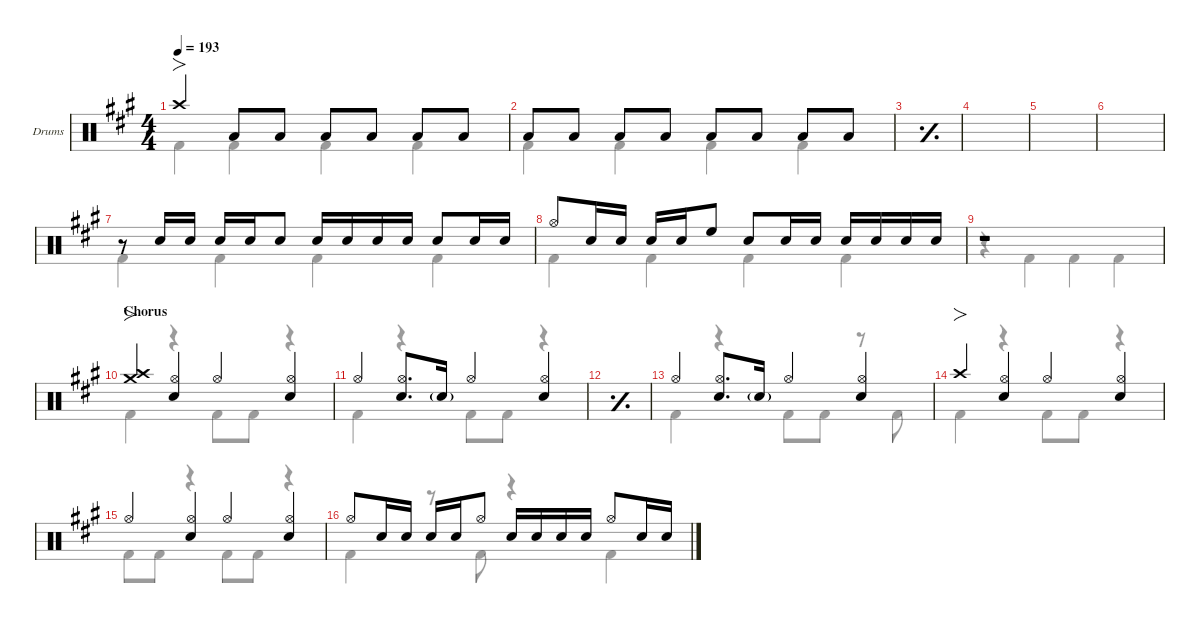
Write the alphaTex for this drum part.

\defaultSystemsLayout 4
\hideDynamics
\bracketExtendMode nobrackets
\firstSystemTrackNameOrientation horizontal
\track ("Drums" "Drums") {defaultSystemsLayout 4 instrument percussion}
\staff {score}
\articulation defaults
\voice
\ts (4 4)
\tempo 193
\clef neutral
\scale
0.266618
\ks a "Crash high (hit)"{acc forcenatural}.4{fo dy f beam Up} "Low Tom (hit)"{acc forcenatural}.8{beam Up} "Low Tom (hit)"{acc forcenatural}.8{beam Up} "Low Tom (hit)"{acc forcenatural}.8{beam Up} "Low Tom (hit)"{acc forcenatural}.8{beam Up} "Low Tom (hit)"{acc forcenatural}.8{beam Up} "Low Tom (hit)"{acc forcenatural}.8{beam Up}
|
\scale
0.244461 "Low Tom (hit)"{acc forcenatural}.8{beam Up} "Low Tom (hit)"{acc forcenatural}.8{beam Up} "Low Tom (hit)"{acc forcenatural}.8{beam Up} "Low Tom (hit)"{acc forcenatural}.8{beam Up} "Low Tom (hit)"{acc forcenatural}.8{beam Up} "Low Tom (hit)"{acc forcenatural}.8{beam Up} "Low Tom (hit)"{acc forcenatural}.8{beam Up} "Low Tom (hit)"{acc forcenatural}.8{beam Up} |
\simile simple
\scale
0.244461 |
\scale
0.244461 |
\scale
0.267605 |
\scale
0.244132 |
\simile none
\scale
0.244132 r.8{beam Up} "Snare (hit) 2"{acc forcenatural}.16{beam Up} "Snare (hit) 2"{acc forcenatural}.16{dy mf beam Up beam split} "Snare (hit) 2"{acc forcenatural}.16{dy f beam Up} "Snare (hit) 2"{acc forcenatural}.16{dy mf beam Up} "Snare (hit) 2"{acc forcenatural}.8{dy f beam Up} "Snare (hit) 2"{acc forcenatural}.16{beam Up} "Snare (hit) 2"{acc forcenatural}.16{dy mf beam Up beam merge} "Snare (hit) 2"{acc forcenatural}.16{dy f beam Up} "Snare (hit) 2"{acc forcenatural}.16{dy mf beam Up beam split} "Snare (hit) 2"{acc forcenatural}.8{dy f beam Up} "Snare (hit) 2"{acc forcenatural}.16{beam Up} "Snare (hit) 2"{acc forcenatural}.16{dy mf beam Up} |
\scale
0.244132 "Hi-Hat (open)"{acc forcenatural}.8{dy f beam Up} "Snare (hit) 2"{acc forcenatural}.16{beam Up} "Snare (hit) 2"{acc forcenatural}.16{dy mf beam Up beam split} "Snare (hit) 2"{acc forcenatural}.16{dy f beam Up} "Snare (hit) 2"{acc forcenatural}.16{dy mf beam Up} "High Floor Tom (hit)"{acc forcenatural}.8{dy f beam Up} "Snare (hit) 2"{acc forcenatural}.8{beam Up} "Snare (hit) 2"{acc forcenatural}.16{beam Up} "Snare (hit) 2"{acc forcenatural}.16{dy mf beam Up beam split} "Snare (hit) 2"{acc forcenatural}.16{dy f beam Up} "Snare (hit) 2"{acc forcenatural}.16{dy mf beam Up beam merge} "Snare (hit) 2"{acc forcenatural}.16{dy f beam Up} "Snare (hit) 2"{acc forcenatural}.16{dy mf beam Up beam split} |
r.1{beam Up} |
\section ("" "Chorus")
\scale
0.267605 ("Crash high (hit)"{acc forcenatural} "Crash medium (hit)"{acc forcenatural}).4{fo dy f beam Up} ("Hi-Hat (open)"{acc forcenatural} "Snare (hit) 2"{acc forcenatural}).4{beam Up} "Hi-Hat (open)"{acc forcenatural}.4{beam Up} ("Hi-Hat (open)"{acc forcenatural} "Snare (hit) 2"{acc forcenatural}).4{beam Up} |
\scale
0.244132 "Hi-Hat (open)"{acc forcenatural}.4{beam Up} ("Hi-Hat (open)"{acc forcenatural} "Snare (hit) 2"{acc forcenatural}).8{d beam Up} "Snare (hit) 2"{g acc forcenatural}.16{dy mf beam Up} "Hi-Hat (open)"{acc forcenatural}.4{dy f beam Up} ("Hi-Hat (open)"{acc forcenatural} "Snare (hit) 2"{acc forcenatural}).4{beam Up} |
\simile simple
\scale
0.244132 |
\simile none
\scale
0.244132 "Hi-Hat (open)"{acc forcenatural}.4{beam Up} ("Hi-Hat (open)"{acc forcenatural} "Snare (hit) 2"{acc forcenatural}).8{d beam Up} "Snare (hit) 2"{g acc forcenatural}.16{dy mf beam Up} "Hi-Hat (open)"{acc forcenatural}.4{dy f beam Up} ("Hi-Hat (open)"{acc forcenatural} "Snare (hit) 2"{acc forcenatural}).4{beam Up} |
\scale
0.267605 "Crash high (hit)"{acc forcenatural}.4{fo beam Up} ("Hi-Hat (open)"{acc forcenatural} "Snare (hit) 2"{acc forcenatural}).4{beam Up} "Hi-Hat (open)"{acc forcenatural}.4{beam Up} ("Hi-Hat (open)"{acc forcenatural} "Snare (hit) 2"{acc forcenatural}).4{beam Up} |
\scale
0.244132 "Hi-Hat (open)"{acc forcenatural}.4{beam Up} ("Hi-Hat (open)"{acc forcenatural} "Snare (hit) 2"{acc forcenatural}).4{beam Up} "Hi-Hat (open)"{acc forcenatural}.4{beam Up} ("Hi-Hat (open)"{acc forcenatural} "Snare (hit) 2"{acc forcenatural}).4{beam Up} |
\scale
0.244132 "Hi-Hat (open)"{acc forcenatural}.8{beam Up} "Snare (hit) 2"{acc forcenatural}.16{beam Up} "Snare (hit) 2"{acc forcenatural}.16{beam Up beam split} "Snare (hit) 2"{acc forcenatural}.16{beam Up} "Snare (hit) 2"{acc forcenatural}.16{beam Up} "Hi-Hat (open)"{acc forcenatural}.8{beam Up} "Snare (hit) 2"{acc forcenatural}.16{beam Up beam merge} "Snare (hit) 2"{acc forcenatural}.16{beam Up beam merge} "Snare (hit) 2"{acc forcenatural}.16{beam Up beam merge} "Snare (hit) 2"{acc forcenatural}.16{beam Up beam split} "Hi-Hat (open)"{acc forcenatural}.8{beam Up} "Snare (hit) 2"{acc forcenatural}.16{beam Up beam merge} "Snare (hit) 2"{acc forcenatural}.16{beam Up}
\voice
\clef neutral
\ottava regular
\simile none
\scale
0.266618
\ks a "Kick (hit) 2"{acc forcenatural}.4{dy f beam Down} "Kick (hit) 2"{acc forcenatural}.4{beam Down} "Kick (hit) 2"{acc forcenatural}.4{beam Down} "Kick (hit) 2"{acc forcenatural}.4{beam Down}
|
\scale
0.244461 "Kick (hit) 2"{acc forcenatural}.4{beam Down} "Kick (hit) 2"{acc forcenatural}.4{beam Down} "Kick (hit) 2"{acc forcenatural}.4{beam Down} "Kick (hit) 2"{acc forcenatural}.4{beam Down} |
\simile simple
\scale
0.244461 |
\scale
0.244461 |
\scale
0.267605 |
\scale
0.244132 |
\simile none
\scale
0.244132 "Kick (hit) 2"{acc forcenatural}.4{beam Down} "Kick (hit) 2"{acc forcenatural}.4{beam Down} "Kick (hit) 2"{acc forcenatural}.4{beam Down} "Kick (hit) 2"{acc forcenatural}.4{beam Down} |
\scale
0.244132 "Kick (hit) 2"{acc forcenatural}.4{beam Down} "Kick (hit) 2"{acc forcenatural}.4{beam Down} "Kick (hit) 2"{acc forcenatural}.4{beam Down} "Kick (hit) 2"{acc forcenatural}.4{beam Down} |
r.4{beam Down} "Kick (hit) 2"{acc forcenatural}.4{beam Down} "Kick (hit) 2"{acc forcenatural}.4{beam Down} "Kick (hit) 2"{acc forcenatural}.4{beam Down} |
\scale
0.267605 "Kick (hit) 2"{acc forcenatural}.4{beam Down} r.4{beam Down} "Kick (hit) 2"{acc forcenatural}.8{beam Down} "Kick (hit) 2"{acc forcenatural}.8{beam Down} r.4{beam Down} |
\scale
0.244132 "Kick (hit) 2"{acc forcenatural}.4{beam Down} r.4{beam Down} "Kick (hit) 2"{acc forcenatural}.8{beam Down} "Kick (hit) 2"{acc forcenatural}.8{beam Down} r.4{beam Down} |
\simile simple
\scale
0.244132 |
\simile none
\scale
0.244132 "Kick (hit) 2"{acc forcenatural}.4{beam Down} r.4{beam Down} "Kick (hit) 2"{acc forcenatural}.8{beam Down} "Kick (hit) 2"{acc forcenatural}.8{beam Down} r.8{beam Down} "Kick (hit) 2"{acc forcenatural}.8{beam Down} |
\scale
0.267605 "Kick (hit) 2"{acc forcenatural}.4{beam Down} r.4{beam Down} "Kick (hit) 2"{acc forcenatural}.8{beam Down} "Kick (hit) 2"{acc forcenatural}.8{beam Down} r.4{beam Down} |
\scale
0.244132 "Kick (hit) 2"{acc forcenatural}.8{beam Down} "Kick (hit) 2"{acc forcenatural}.8{beam Down} r.4{beam Down} "Kick (hit) 2"{acc forcenatural}.8{beam Down} "Kick (hit) 2"{acc forcenatural}.8{beam Down} r.4{beam Down} |
\scale
0.244132 "Kick (hit) 2"{acc forcenatural}.4{beam Down} r.8{beam Down} "Kick (hit) 2"{acc forcenatural}.8{beam Down} r.4{beam Down} "Kick (hit) 2"{acc forcenatural}.4{beam Down}
